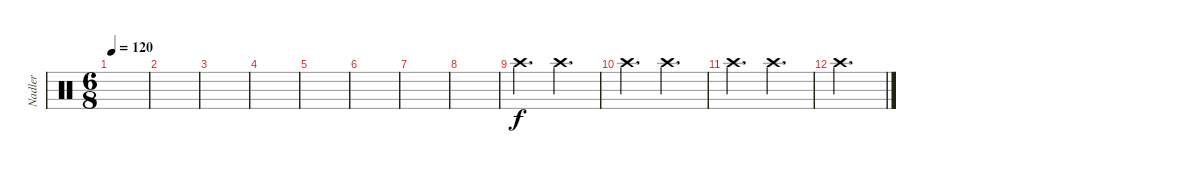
\track ("Nadler" "Nadler") {mute instrument percussion}
\staff {score}
\articulation defaults
\ts (6 8)
\tempo 120
\clef neutral
\ks c
|
|
|
|
|
|
|
|
"Crash high (hit)".4{d} "Crash high (hit)".4{d} |
"Crash high (hit)".4{d} "Crash high (hit)".4{d} |
"Crash high (hit)".4{d} "Crash high (hit)".4{d} |
"Crash high (hit)".2{d}
